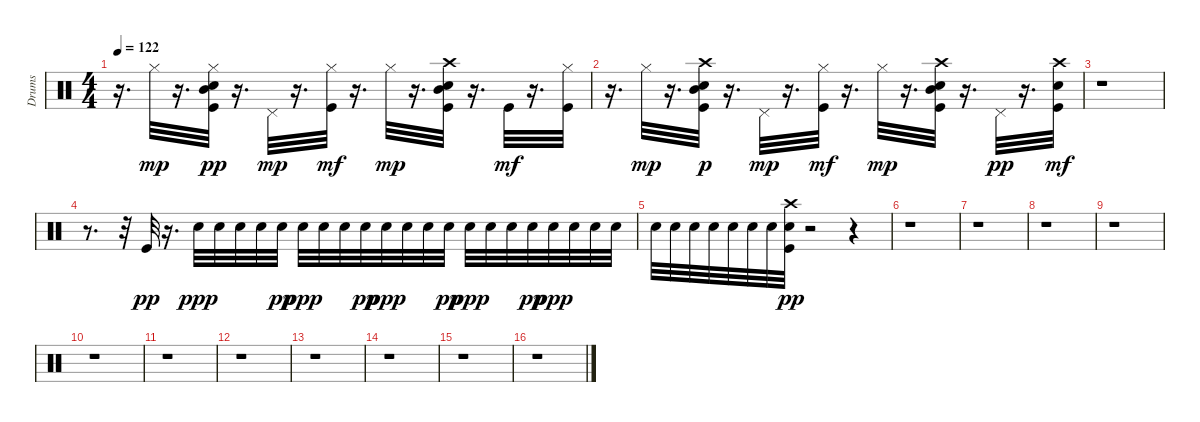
\track ("Drums" "Drums") {instrument percussion}
\staff {score}
\articulation defaults
\ts (4 4)
\tempo 122
\clef neutral
\ks c
r.16{d dy mf} "Hi-Hat (closed)".32{dy mp} r.16{d} ("Kick (hit)" "Hi-Hat (closed)" "Snare (hit) 2" "Mid Tom (hit)").32{dy pp} r.16{d} "Pedal Hi-Hat (hit)".32{dy mp} r.16{d} ("Kick (hit)" "Hi-Hat (closed)").32{dy mf} r.16{d} "Hi-Hat (closed)".32{dy mp} r.16{d} ("Kick (hit)" "Mid Tom (hit)" "Snare (hit) 2" "Crash high (hit)").32 r.16{d} "Kick (hit)".32{dy mf} r.16{d} ("Kick (hit)" "Hi-Hat (closed)").32 |
r.16{d} "Hi-Hat (closed)".32{dy mp} r.16{d} ("Kick (hit)" "Mid Tom (hit)" "Snare (hit) 2" "Crash high (hit)").32{dy p} r.16{d} "Pedal Hi-Hat (hit)".32{dy mp} r.16{d} ("Kick (hit)" "Hi-Hat (closed)").32{dy mf} r.16{d} "Hi-Hat (closed)".32{dy mp} r.16{d} ("Kick (hit)" "Mid Tom (hit)" "Snare (hit) 2" "Crash high (hit)").32 r.16{d} "Pedal Hi-Hat (hit)".32{dy pp} r.16{d} ("Kick (hit)" "Snare (hit) 2" "Crash high (hit)").32{dy mf} |
r.1 |
r.8{d} r.32 "Kick (hit)".32{dy pp} r.16{d} "Snare (hit) 2".32{dy ppp} "Snare (hit) 2".32 "Snare (hit) 2".32 "Snare (hit) 2".32 "Snare (hit) 2".32{dy pp} "Snare (hit) 2".32{dy ppp} "Snare (hit) 2".32 "Snare (hit) 2".32 "Snare (hit) 2".32{dy pp} "Snare (hit) 2".32{dy ppp} "Snare (hit) 2".32 "Snare (hit) 2".32 "Snare (hit) 2".32{dy pp} "Snare (hit) 2".32{dy ppp} "Snare (hit) 2".32 "Snare (hit) 2".32 "Snare (hit) 2".32{dy pp} "Snare (hit) 2".32{dy ppp} "Snare (hit) 2".32 "Snare (hit) 2".32 "Snare (hit) 2".32 |
"Snare (hit) 2".32 "Snare (hit) 2".32 "Snare (hit) 2".32 "Snare (hit) 2".32 "Snare (hit) 2".32 "Snare (hit) 2".32 "Snare (hit) 2".32 ("Snare (hit) 2" "Kick (hit)" "Crash high (hit)").32{dy pp} r.2 r.4 |
r.1 |
r.1 |
r.1 |
r.1 |
r.1 |
r.1 |
r.1 |
r.1 |
r.1 |
r.1 |
r.1
